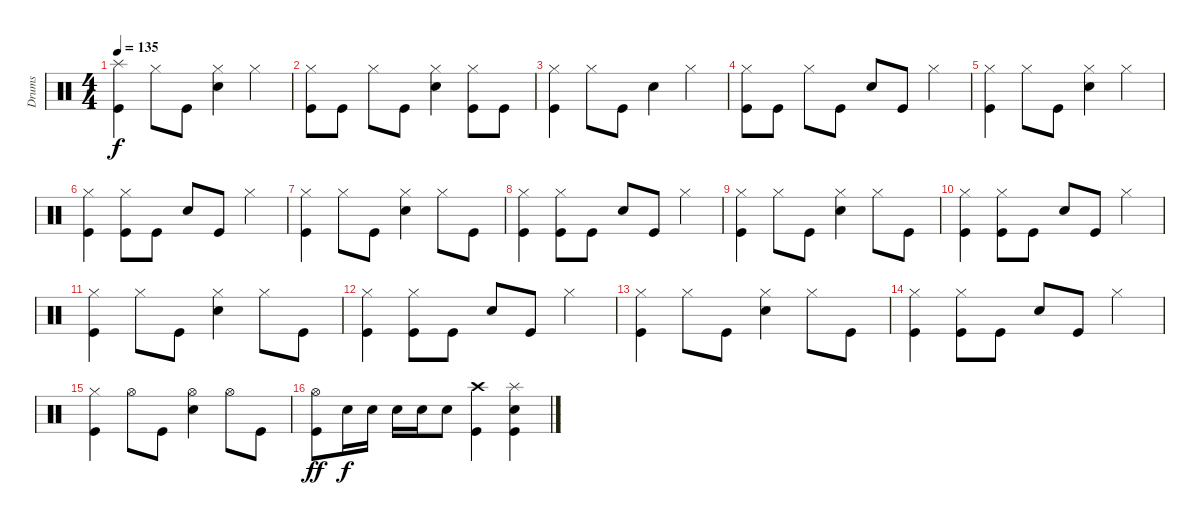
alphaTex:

\track ("Drums" "Drums") {instrument percussion}
\staff {score}
\articulation defaults
\ts (4 4)
\tempo 135
\clef neutral
\ks c
("Splash (hit)" "Kick (hit)").4{dy f} "Hi-Hat (closed)".8 "Kick (hit)".8 ("Hi-Hat (closed)" "Snare (hit) 2").4 "Hi-Hat (closed)".4 |
("Hi-Hat (closed)" "Kick (hit)").8 "Kick (hit)".8 "Hi-Hat (closed)".8 "Kick (hit)".8 ("Hi-Hat (closed)" "Snare (hit) 2").4 ("Hi-Hat (closed)" "Kick (hit)").8 "Kick (hit)".8 |
("Hi-Hat (closed)" "Kick (hit)").4 "Hi-Hat (closed)".8 "Kick (hit)".8 "Snare (hit) 2".4 "Hi-Hat (closed)".4 |
("Hi-Hat (closed)" "Kick (hit)").8 "Kick (hit)".8 "Hi-Hat (closed)".8 "Kick (hit)".8 "Snare (hit) 2".8 "Kick (hit)".8 "Hi-Hat (closed)".4 |
("Hi-Hat (closed)" "Kick (hit)").4 "Hi-Hat (closed)".8 "Kick (hit)".8 ("Hi-Hat (closed)" "Snare (hit) 2").4 "Hi-Hat (closed)".4 |
("Hi-Hat (closed)" "Kick (hit)").4 ("Hi-Hat (closed)" "Kick (hit)").8 "Kick (hit)".8 "Snare (hit) 2".8 "Kick (hit)".8 "Hi-Hat (closed)".4 |
("Hi-Hat (closed)" "Kick (hit)").4 "Hi-Hat (closed)".8 "Kick (hit)".8 ("Hi-Hat (closed)" "Snare (hit) 2").4 "Hi-Hat (closed)".8 "Kick (hit)".8 |
("Hi-Hat (closed)" "Kick (hit)").4 ("Hi-Hat (closed)" "Kick (hit)").8 "Kick (hit)".8 "Snare (hit) 2".8 "Kick (hit)".8 "Hi-Hat (closed)".4 |
("Hi-Hat (closed)" "Kick (hit)").4 "Hi-Hat (closed)".8 "Kick (hit)".8 ("Hi-Hat (closed)" "Snare (hit) 2").4 "Hi-Hat (closed)".8 "Kick (hit)".8 |
("Hi-Hat (closed)" "Kick (hit)").4 ("Hi-Hat (closed)" "Kick (hit)").8 "Kick (hit)".8 "Snare (hit) 2".8 "Kick (hit)".8 "Hi-Hat (closed)".4 |
("Hi-Hat (closed)" "Kick (hit)").4 "Hi-Hat (closed)".8 "Kick (hit)".8 ("Hi-Hat (closed)" "Snare (hit) 2").4 "Hi-Hat (closed)".8 "Kick (hit)".8 |
("Hi-Hat (closed)" "Kick (hit)").4 ("Hi-Hat (closed)" "Kick (hit)").8 "Kick (hit)".8 "Snare (hit) 2".8 "Kick (hit)".8 "Hi-Hat (closed)".4 |
("Hi-Hat (closed)" "Kick (hit)").4 "Hi-Hat (closed)".8 "Kick (hit)".8 ("Hi-Hat (closed)" "Snare (hit) 2").4 "Hi-Hat (closed)".8 "Kick (hit)".8 |
("Hi-Hat (closed)" "Kick (hit)").4 ("Hi-Hat (closed)" "Kick (hit)").8 "Kick (hit)".8 "Snare (hit) 2".8 "Kick (hit)".8 "Hi-Hat (closed)".4 |
("Hi-Hat (closed)" "Kick (hit)").4 "Hi-Hat (open)".8 "Kick (hit)".8 ("Hi-Hat (open)" "Snare (hit) 2").4 "Hi-Hat (open)".8 "Kick (hit)".8 |
("Hi-Hat (open)" "Kick (hit)").8{dy ff} "Snare (hit) 2".16{dy f} "Snare (hit) 2".16 "Snare (hit) 2".16 "Snare (hit) 2".16 "Snare (hit) 2".8 ("Crash high (hit)" "Kick (hit)").4 ("Splash (hit)" "Snare (hit) 2" "Kick (hit)").4
